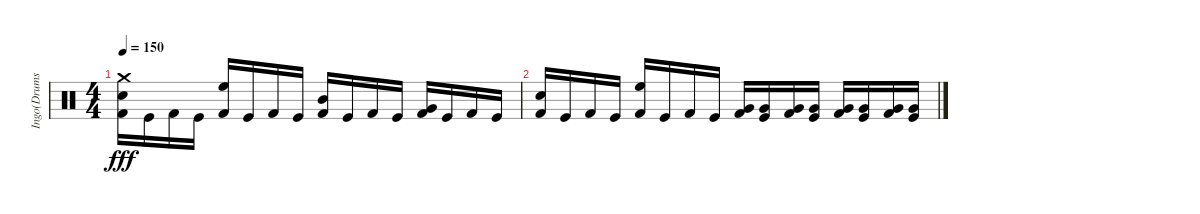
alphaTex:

\track ("Ingo(Drums)" "Ingo(Drums") {instrument percussion}
\staff {score}
\articulation defaults
\ts (4 4)
\tempo 150
\clef neutral
\ks c
("Crash medium (hit)" "Electric Snare (hit)" "Kick (hit) 2").16{dy fff volume 11} "Kick (hit)".16 "Kick (hit) 2".16 "Kick (hit)".16 ("High Floor Tom (hit)" "Kick (hit) 2").16{volume 10} "Kick (hit)".16 "Kick (hit) 2".16 "Kick (hit)".16 ("Mid Tom (hit)" "Kick (hit) 2").16{volume 10} "Kick (hit)".16 "Kick (hit) 2".16 "Kick (hit)".16 ("Very Low Tom (hit)" "Kick (hit) 2").16{volume 9} "Kick (hit)".16 "Kick (hit) 2".16 "Kick (hit)".16 |
("Electric Snare (hit)" "Kick (hit) 2").16{volume 4} "Kick (hit)".16 "Kick (hit) 2".16 "Kick (hit)".16 ("High Floor Tom (hit)" "Kick (hit) 2").16{volume 3} "Kick (hit)".16 "Kick (hit) 2".16 "Kick (hit)".16 ("Very Low Tom (hit)" "Kick (hit) 2").16{volume 2} ("Very Low Tom (hit)" "Kick (hit)").16 ("Very Low Tom (hit)" "Kick (hit) 2").16{volume 1} ("Very Low Tom (hit)" "Kick (hit)").16 ("Very Low Tom (hit)" "Kick (hit) 2").16{volume 0} ("Very Low Tom (hit)" "Kick (hit)").16 ("Very Low Tom (hit)" "Kick (hit) 2").16 ("Very Low Tom (hit)" "Kick (hit)").16
